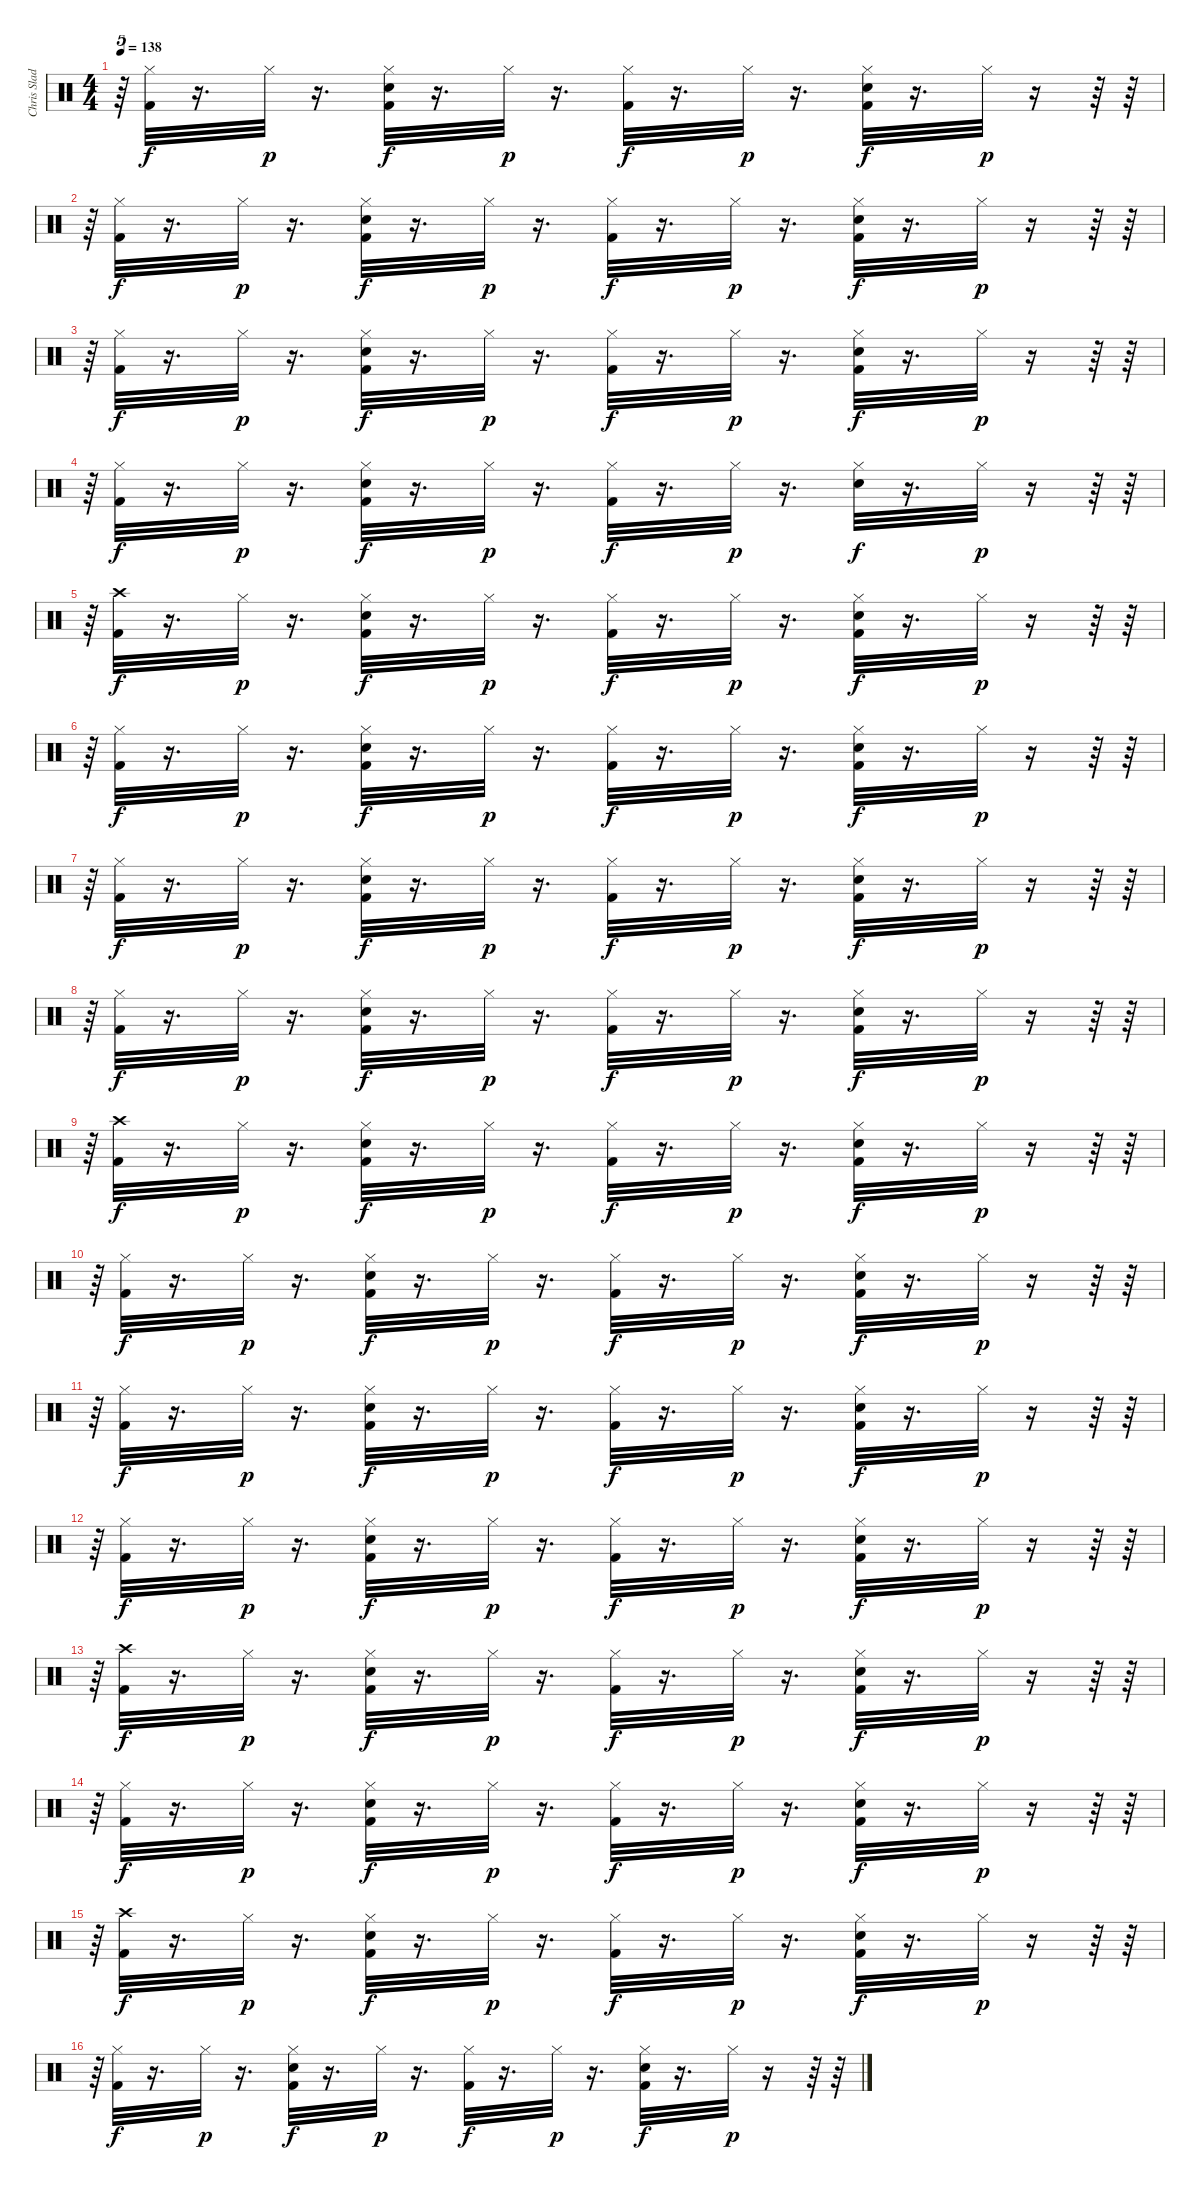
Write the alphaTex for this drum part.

\track ("Chris Slade" "Chris Slad") {instrument percussion}
\staff {score}
\articulation defaults
\ts (4 4)
\tempo 138
\clef neutral
\ks c
r.64{tu (5 4) dy p} ("Hi-Hat (closed)" "Kick (hit) 2").32{dy f} r.16{d} "Hi-Hat (closed)".32{dy p} r.16{d} ("Kick (hit) 2" "Hi-Hat (closed)" "Electric Snare (hit)").32{dy f} r.16{d} "Hi-Hat (closed)".32{dy p} r.16{d} ("Hi-Hat (closed)" "Kick (hit) 2").32{dy f} r.16{d} "Hi-Hat (closed)".32{dy p} r.16{d} ("Kick (hit) 2" "Hi-Hat (closed)" "Electric Snare (hit)").32{dy f} r.16{d} "Hi-Hat (closed)".32{dy p} r.16 r.64 r.64 |
r.64{tu (5 4)} ("Hi-Hat (closed)" "Kick (hit) 2").32{dy f} r.16{d} "Hi-Hat (closed)".32{dy p} r.16{d} ("Kick (hit) 2" "Hi-Hat (closed)" "Electric Snare (hit)").32{dy f} r.16{d} "Hi-Hat (closed)".32{dy p} r.16{d} ("Hi-Hat (closed)" "Kick (hit) 2").32{dy f} r.16{d} "Hi-Hat (closed)".32{dy p} r.16{d} ("Kick (hit) 2" "Hi-Hat (closed)" "Electric Snare (hit)").32{dy f} r.16{d} "Hi-Hat (closed)".32{dy p} r.16 r.64 r.64 |
r.64{tu (5 4)} ("Hi-Hat (closed)" "Kick (hit) 2").32{dy f} r.16{d} "Hi-Hat (closed)".32{dy p} r.16{d} ("Kick (hit) 2" "Hi-Hat (closed)" "Electric Snare (hit)").32{dy f} r.16{d} "Hi-Hat (closed)".32{dy p} r.16{d} ("Hi-Hat (closed)" "Kick (hit) 2").32{dy f} r.16{d} "Hi-Hat (closed)".32{dy p} r.16{d} ("Kick (hit) 2" "Hi-Hat (closed)" "Electric Snare (hit)").32{dy f} r.16{d} "Hi-Hat (closed)".32{dy p} r.16 r.64 r.64 |
r.64{tu (5 4)} ("Hi-Hat (closed)" "Kick (hit) 2").32{dy f} r.16{d} "Hi-Hat (closed)".32{dy p} r.16{d} ("Kick (hit) 2" "Hi-Hat (closed)" "Electric Snare (hit)").32{dy f} r.16{d} "Hi-Hat (closed)".32{dy p} r.16{d} ("Hi-Hat (closed)" "Kick (hit) 2").32{dy f} r.16{d} "Hi-Hat (closed)".32{dy p} r.16{d} ("Hi-Hat (closed)" "Electric Snare (hit)").32{dy f} r.16{d} "Hi-Hat (closed)".32{dy p} r.16 r.64 r.64 |
r.64{tu (5 4)} ("Crash high (hit)" "Kick (hit) 2").32{dy f} r.16{d} "Hi-Hat (closed)".32{dy p} r.16{d} ("Kick (hit) 2" "Hi-Hat (closed)" "Electric Snare (hit)").32{dy f} r.16{d} "Hi-Hat (closed)".32{dy p} r.16{d} ("Hi-Hat (closed)" "Kick (hit) 2").32{dy f} r.16{d} "Hi-Hat (closed)".32{dy p} r.16{d} ("Kick (hit) 2" "Hi-Hat (closed)" "Electric Snare (hit)").32{dy f} r.16{d} "Hi-Hat (closed)".32{dy p} r.16 r.64 r.64 |
r.64{tu (5 4)} ("Hi-Hat (closed)" "Kick (hit) 2").32{dy f} r.16{d} "Hi-Hat (closed)".32{dy p} r.16{d} ("Kick (hit) 2" "Hi-Hat (closed)" "Electric Snare (hit)").32{dy f} r.16{d} "Hi-Hat (closed)".32{dy p} r.16{d} ("Hi-Hat (closed)" "Kick (hit) 2").32{dy f} r.16{d} "Hi-Hat (closed)".32{dy p} r.16{d} ("Kick (hit) 2" "Hi-Hat (closed)" "Electric Snare (hit)").32{dy f} r.16{d} "Hi-Hat (closed)".32{dy p} r.16 r.64 r.64 |
r.64{tu (5 4)} ("Hi-Hat (closed)" "Kick (hit) 2").32{dy f} r.16{d} "Hi-Hat (closed)".32{dy p} r.16{d} ("Kick (hit) 2" "Hi-Hat (closed)" "Electric Snare (hit)").32{dy f} r.16{d} "Hi-Hat (closed)".32{dy p} r.16{d} ("Hi-Hat (closed)" "Kick (hit) 2").32{dy f} r.16{d} "Hi-Hat (closed)".32{dy p} r.16{d} ("Kick (hit) 2" "Hi-Hat (closed)" "Electric Snare (hit)").32{dy f} r.16{d} "Hi-Hat (closed)".32{dy p} r.16 r.64 r.64 |
r.64{tu (5 4)} ("Hi-Hat (closed)" "Kick (hit) 2").32{dy f} r.16{d} "Hi-Hat (closed)".32{dy p} r.16{d} ("Kick (hit) 2" "Hi-Hat (closed)" "Electric Snare (hit)").32{dy f} r.16{d} "Hi-Hat (closed)".32{dy p} r.16{d} ("Hi-Hat (closed)" "Kick (hit) 2").32{dy f} r.16{d} "Hi-Hat (closed)".32{dy p} r.16{d} ("Kick (hit) 2" "Hi-Hat (closed)" "Electric Snare (hit)").32{dy f} r.16{d} "Hi-Hat (closed)".32{dy p} r.16 r.64 r.64 |
r.64{tu (5 4)} ("Crash high (hit)" "Kick (hit) 2").32{dy f} r.16{d} "Hi-Hat (closed)".32{dy p} r.16{d} ("Kick (hit) 2" "Hi-Hat (closed)" "Electric Snare (hit)").32{dy f} r.16{d} "Hi-Hat (closed)".32{dy p} r.16{d} ("Hi-Hat (closed)" "Kick (hit) 2").32{dy f} r.16{d} "Hi-Hat (closed)".32{dy p} r.16{d} ("Kick (hit) 2" "Hi-Hat (closed)" "Electric Snare (hit)").32{dy f} r.16{d} "Hi-Hat (closed)".32{dy p} r.16 r.64 r.64 |
r.64{tu (5 4)} ("Hi-Hat (closed)" "Kick (hit) 2").32{dy f} r.16{d} "Hi-Hat (closed)".32{dy p} r.16{d} ("Kick (hit) 2" "Hi-Hat (closed)" "Electric Snare (hit)").32{dy f} r.16{d} "Hi-Hat (closed)".32{dy p} r.16{d} ("Hi-Hat (closed)" "Kick (hit) 2").32{dy f} r.16{d} "Hi-Hat (closed)".32{dy p} r.16{d} ("Kick (hit) 2" "Hi-Hat (closed)" "Electric Snare (hit)").32{dy f} r.16{d} "Hi-Hat (closed)".32{dy p} r.16 r.64 r.64 |
r.64{tu (5 4)} ("Hi-Hat (closed)" "Kick (hit) 2").32{dy f} r.16{d} "Hi-Hat (closed)".32{dy p} r.16{d} ("Kick (hit) 2" "Hi-Hat (closed)" "Electric Snare (hit)").32{dy f} r.16{d} "Hi-Hat (closed)".32{dy p} r.16{d} ("Hi-Hat (closed)" "Kick (hit) 2").32{dy f} r.16{d} "Hi-Hat (closed)".32{dy p} r.16{d} ("Kick (hit) 2" "Hi-Hat (closed)" "Electric Snare (hit)").32{dy f} r.16{d} "Hi-Hat (closed)".32{dy p} r.16 r.64 r.64 |
r.64{tu (5 4)} ("Hi-Hat (closed)" "Kick (hit) 2").32{dy f} r.16{d} "Hi-Hat (closed)".32{dy p} r.16{d} ("Kick (hit) 2" "Hi-Hat (closed)" "Electric Snare (hit)").32{dy f} r.16{d} "Hi-Hat (closed)".32{dy p} r.16{d} ("Hi-Hat (closed)" "Kick (hit) 2").32{dy f} r.16{d} "Hi-Hat (closed)".32{dy p} r.16{d} ("Kick (hit) 2" "Hi-Hat (closed)" "Electric Snare (hit)").32{dy f} r.16{d} "Hi-Hat (closed)".32{dy p} r.16 r.64 r.64 |
r.64{tu (5 4)} ("Crash high (hit)" "Kick (hit) 2").32{dy f} r.16{d} "Hi-Hat (closed)".32{dy p} r.16{d} ("Kick (hit) 2" "Hi-Hat (closed)" "Electric Snare (hit)").32{dy f} r.16{d} "Hi-Hat (closed)".32{dy p} r.16{d} ("Hi-Hat (closed)" "Kick (hit) 2").32{dy f} r.16{d} "Hi-Hat (closed)".32{dy p} r.16{d} ("Kick (hit) 2" "Hi-Hat (closed)" "Electric Snare (hit)").32{dy f} r.16{d} "Hi-Hat (closed)".32{dy p} r.16 r.64 r.64 |
r.64{tu (5 4)} ("Hi-Hat (closed)" "Kick (hit) 2").32{dy f} r.16{d} "Hi-Hat (closed)".32{dy p} r.16{d} ("Kick (hit) 2" "Hi-Hat (closed)" "Electric Snare (hit)").32{dy f} r.16{d} "Hi-Hat (closed)".32{dy p} r.16{d} ("Hi-Hat (closed)" "Kick (hit) 2").32{dy f} r.16{d} "Hi-Hat (closed)".32{dy p} r.16{d} ("Kick (hit) 2" "Hi-Hat (closed)" "Electric Snare (hit)").32{dy f} r.16{d} "Hi-Hat (closed)".32{dy p} r.16 r.64 r.64 |
r.64{tu (5 4)} ("Crash high (hit)" "Kick (hit) 2").32{dy f} r.16{d} "Hi-Hat (closed)".32{dy p} r.16{d} ("Kick (hit) 2" "Hi-Hat (closed)" "Electric Snare (hit)").32{dy f} r.16{d} "Hi-Hat (closed)".32{dy p} r.16{d} ("Hi-Hat (closed)" "Kick (hit) 2").32{dy f} r.16{d} "Hi-Hat (closed)".32{dy p} r.16{d} ("Kick (hit) 2" "Hi-Hat (closed)" "Electric Snare (hit)").32{dy f} r.16{d} "Hi-Hat (closed)".32{dy p} r.16 r.64 r.64 |
r.64{tu (5 4)} ("Hi-Hat (closed)" "Kick (hit) 2").32{dy f} r.16{d} "Hi-Hat (closed)".32{dy p} r.16{d} ("Kick (hit) 2" "Hi-Hat (closed)" "Electric Snare (hit)").32{dy f} r.16{d} "Hi-Hat (closed)".32{dy p} r.16{d} ("Hi-Hat (closed)" "Kick (hit) 2").32{dy f} r.16{d} "Hi-Hat (closed)".32{dy p} r.16{d} ("Kick (hit) 2" "Hi-Hat (closed)" "Electric Snare (hit)").32{dy f} r.16{d} "Hi-Hat (closed)".32{dy p} r.16 r.64 r.64
